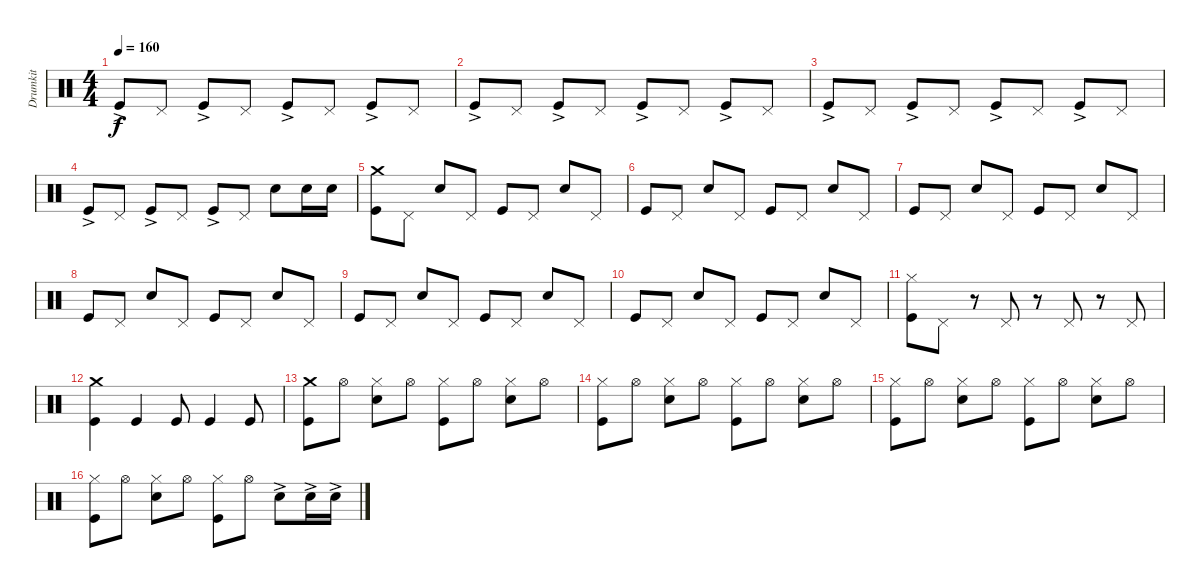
\track ("Drumkit" "Drumkit") {instrument percussion}
\staff {score}
\articulation defaults
\ts (4 4)
\tempo 160
\clef neutral
\ks c "Kick (hit)"{ac}.8{dy f} "Pedal Hi-Hat (hit)".8 "Kick (hit)"{ac}.8 "Pedal Hi-Hat (hit)".8 "Kick (hit)"{ac}.8 "Pedal Hi-Hat (hit)".8 "Kick (hit)"{ac}.8 "Pedal Hi-Hat (hit)".8
|
"Kick (hit)"{ac}.8 "Pedal Hi-Hat (hit)".8 "Kick (hit)"{ac}.8 "Pedal Hi-Hat (hit)".8 "Kick (hit)"{ac}.8 "Pedal Hi-Hat (hit)".8 "Kick (hit)"{ac}.8 "Pedal Hi-Hat (hit)".8 |
"Kick (hit)"{ac}.8 "Pedal Hi-Hat (hit)".8 "Kick (hit)"{ac}.8 "Pedal Hi-Hat (hit)".8 "Kick (hit)"{ac}.8 "Pedal Hi-Hat (hit)".8 "Kick (hit)"{ac}.8 "Pedal Hi-Hat (hit)".8 |
"Kick (hit)"{ac}.8 "Pedal Hi-Hat (hit)".8 "Kick (hit)"{ac}.8 "Pedal Hi-Hat (hit)".8 "Kick (hit)"{ac}.8 "Pedal Hi-Hat (hit)".8 "Snare (hit) 2".8 "Snare (hit) 2".16 "Snare (hit) 2".16 |
("Crash medium (hit)" "Kick (hit)").8 "Pedal Hi-Hat (hit)".8 "Snare (hit) 2".8 "Pedal Hi-Hat (hit)".8 "Kick (hit)".8 "Pedal Hi-Hat (hit)".8 "Snare (hit) 2".8 "Pedal Hi-Hat (hit)".8 |
"Kick (hit)".8 "Pedal Hi-Hat (hit)".8 "Snare (hit) 2".8 "Pedal Hi-Hat (hit)".8 "Kick (hit)".8 "Pedal Hi-Hat (hit)".8 "Snare (hit) 2".8 "Pedal Hi-Hat (hit)".8 |
"Kick (hit)".8 "Pedal Hi-Hat (hit)".8 "Snare (hit) 2".8 "Pedal Hi-Hat (hit)".8 "Kick (hit)".8 "Pedal Hi-Hat (hit)".8 "Snare (hit) 2".8 "Pedal Hi-Hat (hit)".8 |
"Kick (hit)".8 "Pedal Hi-Hat (hit)".8 "Snare (hit) 2".8 "Pedal Hi-Hat (hit)".8 "Kick (hit)".8 "Pedal Hi-Hat (hit)".8 "Snare (hit) 2".8 "Pedal Hi-Hat (hit)".8 |
"Kick (hit)".8 "Pedal Hi-Hat (hit)".8 "Snare (hit) 2".8 "Pedal Hi-Hat (hit)".8 "Kick (hit)".8 "Pedal Hi-Hat (hit)".8 "Snare (hit) 2".8 "Pedal Hi-Hat (hit)".8 |
"Kick (hit)".8 "Pedal Hi-Hat (hit)".8 "Snare (hit) 2".8 "Pedal Hi-Hat (hit)".8 "Kick (hit)".8 "Pedal Hi-Hat (hit)".8 "Snare (hit) 2".8 "Pedal Hi-Hat (hit)".8 |
("Hi-Hat (closed)" "Kick (hit)").8 "Pedal Hi-Hat (hit)".8 r.8 "Pedal Hi-Hat (hit)".8 r.8 "Pedal Hi-Hat (hit)".8 r.8 "Pedal Hi-Hat (hit)".8 |
("Crash medium (hit)" "Kick (hit)").4 "Kick (hit)".4 "Kick (hit)".8 "Kick (hit)".4 "Kick (hit)".8 |
("Crash medium (hit)" "Kick (hit)").8 "Hi-Hat (open)".8 ("Snare (hit) 2" "Hi-Hat (closed)").8 "Hi-Hat (open)".8 ("Kick (hit)" "Hi-Hat (closed)").8 "Hi-Hat (open)".8 ("Snare (hit) 2" "Hi-Hat (closed)").8 "Hi-Hat (open)".8 |
("Hi-Hat (closed)" "Kick (hit)").8 "Hi-Hat (open)".8 ("Hi-Hat (closed)" "Snare (hit) 2").8 "Hi-Hat (open)".8 ("Hi-Hat (closed)" "Kick (hit)").8 "Hi-Hat (open)".8 ("Hi-Hat (closed)" "Snare (hit) 2").8 "Hi-Hat (open)".8 |
("Hi-Hat (closed)" "Kick (hit)").8 "Hi-Hat (open)".8 ("Hi-Hat (closed)" "Snare (hit) 2").8 "Hi-Hat (open)".8 ("Hi-Hat (closed)" "Kick (hit)").8 "Hi-Hat (open)".8 ("Hi-Hat (closed)" "Snare (hit) 2").8 "Hi-Hat (open)".8 |
("Hi-Hat (closed)" "Kick (hit)").8 "Hi-Hat (open)".8 ("Hi-Hat (closed)" "Snare (hit) 2").8 "Hi-Hat (open)".8 ("Hi-Hat (closed)" "Kick (hit)").8 "Hi-Hat (open)".8 "Snare (hit) 2"{ac}.8 "Snare (hit) 2"{ac}.16 "Snare (hit) 2"{ac}.16
